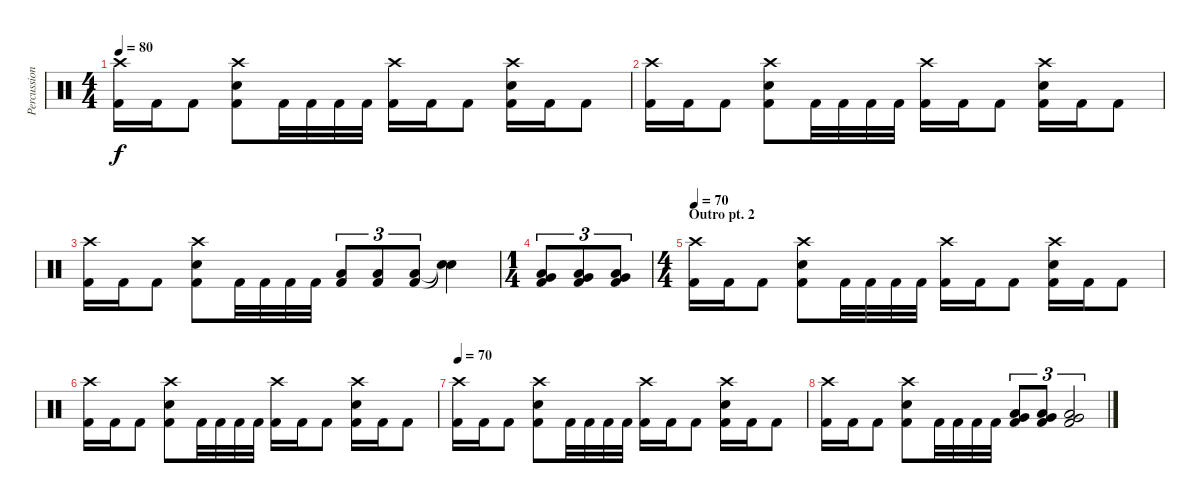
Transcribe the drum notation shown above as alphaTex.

\track ("Percussion" "Percussion") {instrument percussion}
\staff {score}
\articulation defaults
\ts (4 4)
\tempo 80
\clef neutral
\ks c
("Crash high (hit)" "Kick (hit) 2").16{dy f} "Kick (hit) 2".16 "Kick (hit) 2".8 ("Crash high (hit)" "Electric Snare (hit)" "Kick (hit) 2").8 "Kick (hit) 2".32 "Kick (hit) 2".32 "Kick (hit) 2".32 "Kick (hit) 2".32 ("Crash high (hit)" "Kick (hit) 2").16 "Kick (hit) 2".16 "Kick (hit) 2".8 ("Crash high (hit)" "Electric Snare (hit)" "Kick (hit) 2").16 "Kick (hit) 2".16 "Kick (hit) 2".8 |
("Crash high (hit)" "Kick (hit) 2").16 "Kick (hit) 2".16 "Kick (hit) 2".8 ("Crash high (hit)" "Electric Snare (hit)" "Kick (hit) 2").8 "Kick (hit) 2".32 "Kick (hit) 2".32 "Kick (hit) 2".32 "Kick (hit) 2".32 ("Crash high (hit)" "Kick (hit) 2").16 "Kick (hit) 2".16 "Kick (hit) 2".8 ("Crash high (hit)" "Electric Snare (hit)" "Kick (hit) 2").16 "Kick (hit) 2".16 "Kick (hit) 2".8 |
("Crash high (hit)" "Kick (hit) 2").16 "Kick (hit) 2".16 "Kick (hit) 2".8 ("Crash high (hit)" "Electric Snare (hit)" "Kick (hit) 2").8 "Kick (hit) 2".32 "Kick (hit) 2".32 "Kick (hit) 2".32 "Kick (hit) 2".32 ("Low Tom (hit)" "Kick (hit) 2").8{tu (3 2)} ("Low Tom (hit)" "Kick (hit) 2").8{tu (3 2)} ("Low Tom (hit)" "Kick (hit) 2").8{tu (3 2)} ("Snare (hit)"{t} "Snare (hit)"{t}).4 |
\ts (1 4)
("Low Tom (hit)" "Very Low Tom (hit)" "Kick (hit) 2").8{tu (3 2)} ("Low Tom (hit)" "Very Low Tom (hit)" "Kick (hit) 2").8{tu (3 2)} ("Low Tom (hit)" "Very Low Tom (hit)" "Kick (hit) 2").8{tu (3 2)} |
\ts (4 4)
\section ("" "Outro pt. 2")
\tempo 70
("Crash high (hit)" "Kick (hit) 2").16 "Kick (hit) 2".16 "Kick (hit) 2".8 ("Crash high (hit)" "Electric Snare (hit)" "Kick (hit) 2").8 "Kick (hit) 2".32 "Kick (hit) 2".32 "Kick (hit) 2".32 "Kick (hit) 2".32 ("Crash high (hit)" "Kick (hit) 2").16 "Kick (hit) 2".16 "Kick (hit) 2".8 ("Crash high (hit)" "Electric Snare (hit)" "Kick (hit) 2").16 "Kick (hit) 2".16 "Kick (hit) 2".8 |
("Crash high (hit)" "Kick (hit) 2").16 "Kick (hit) 2".16 "Kick (hit) 2".8 ("Crash high (hit)" "Electric Snare (hit)" "Kick (hit) 2").8 "Kick (hit) 2".32 "Kick (hit) 2".32 "Kick (hit) 2".32 "Kick (hit) 2".32 ("Crash high (hit)" "Kick (hit) 2").16 "Kick (hit) 2".16 "Kick (hit) 2".8 ("Crash high (hit)" "Electric Snare (hit)" "Kick (hit) 2").16 "Kick (hit) 2".16 "Kick (hit) 2".8 |
\tempo 70
("Crash high (hit)" "Kick (hit) 2").16 "Kick (hit) 2".16 "Kick (hit) 2".8 ("Crash high (hit)" "Electric Snare (hit)" "Kick (hit) 2").8 "Kick (hit) 2".32 "Kick (hit) 2".32 "Kick (hit) 2".32 "Kick (hit) 2".32 ("Crash high (hit)" "Kick (hit) 2").16 "Kick (hit) 2".16 "Kick (hit) 2".8 ("Crash high (hit)" "Electric Snare (hit)" "Kick (hit) 2").16 "Kick (hit) 2".16 "Kick (hit) 2".8 |
("Crash high (hit)" "Kick (hit) 2").16 "Kick (hit) 2".16 "Kick (hit) 2".8 ("Crash high (hit)" "Electric Snare (hit)" "Kick (hit) 2").8 "Kick (hit) 2".32 "Kick (hit) 2".32 "Kick (hit) 2".32 "Kick (hit) 2".32 ("Low Tom (hit)" "Very Low Tom (hit)" "Kick (hit) 2").8{tu (3 2)} ("Low Tom (hit)" "Very Low Tom (hit)" "Kick (hit) 2").8{tu (3 2)} ("Low Tom (hit)" "Very Low Tom (hit)" "Kick (hit) 2").2{tu (3 2)}
